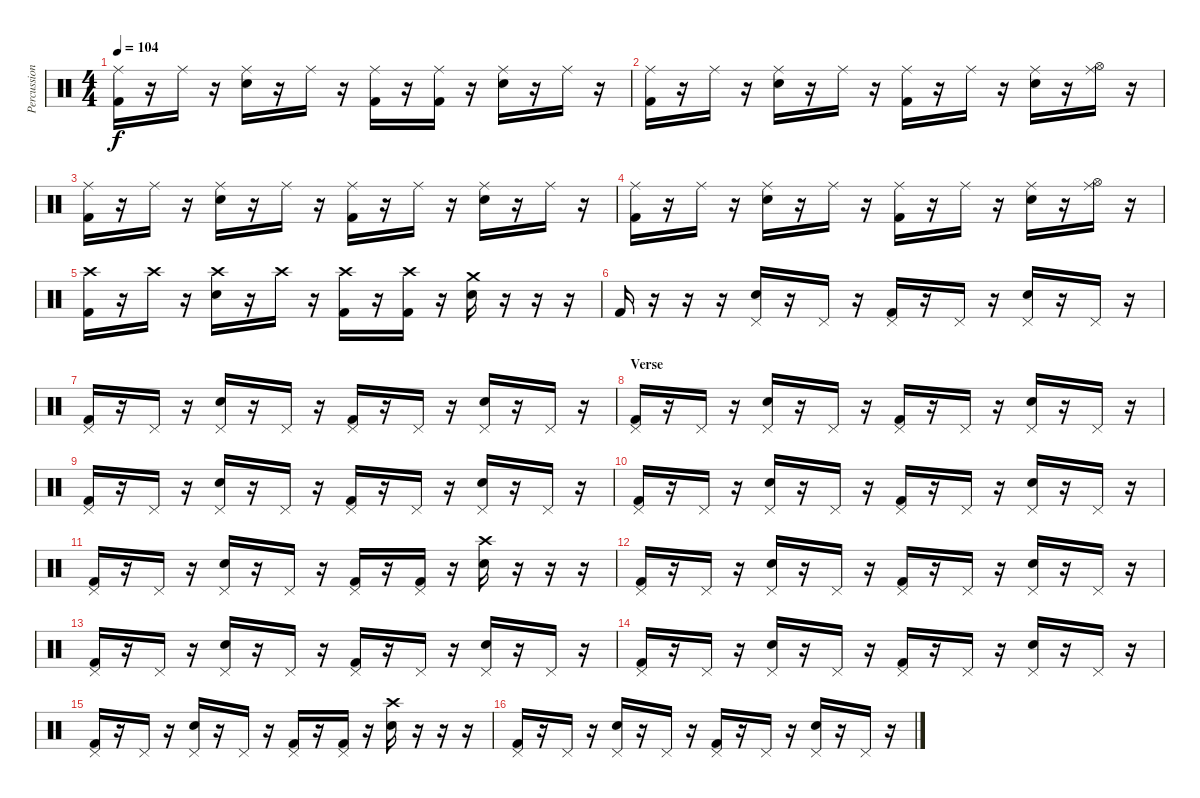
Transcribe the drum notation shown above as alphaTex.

\track ("Percussion" "Percussion") {instrument percussion}
\staff {score}
\articulation defaults
\ts (4 4)
\tempo 104
\clef neutral
\ks c
("Ride (middle)" "Kick (hit) 2").16{dy f} r.16 "Ride (middle)".16 r.16 ("Ride (middle)" "Electric Snare (hit)").16 r.16 "Ride (middle)".16 r.16 ("Ride (middle)" "Kick (hit) 2").16 r.16 ("Ride (middle)" "Kick (hit) 2").16 r.16 ("Ride (middle)" "Electric Snare (hit)").16 r.16 "Ride (middle)".16 r.16 |
("Ride (middle)" "Kick (hit) 2").16 r.16 "Ride (middle)".16 r.16 ("Ride (middle)" "Electric Snare (hit)").16 r.16 "Ride (middle)".16 r.16 ("Ride (middle)" "Kick (hit) 2").16 r.16 "Ride (middle)".16 r.16 ("Ride (middle)" "Electric Snare (hit)").16 r.16 ("Ride (middle)" "Hi-Hat (open)").16 r.16 |
("Ride (middle)" "Kick (hit) 2").16 r.16 "Ride (middle)".16 r.16 ("Ride (middle)" "Electric Snare (hit)").16 r.16 "Ride (middle)".16 r.16 ("Ride (middle)" "Kick (hit) 2").16 r.16 "Ride (middle)".16 r.16 ("Ride (middle)" "Electric Snare (hit)").16 r.16 "Ride (middle)".16 r.16 |
("Ride (middle)" "Kick (hit) 2").16 r.16 "Ride (middle)".16 r.16 ("Ride (middle)" "Electric Snare (hit)").16 r.16 "Ride (middle)".16 r.16 ("Ride (middle)" "Kick (hit) 2").16 r.16 "Ride (middle)".16 r.16 ("Ride (middle)" "Electric Snare (hit)").16 r.16 ("Ride (middle)" "Hi-Hat (open)").16 r.16 |
("Crash high (hit)" "Kick (hit) 2").16 r.16 "Crash high (hit)".16 r.16 ("Crash high (hit)" "Electric Snare (hit)").16 r.16 "Crash high (hit)".16 r.16 ("Crash high (hit)" "Kick (hit) 2").16 r.16 ("Crash high (hit)" "Kick (hit) 2").16 r.16 ("Crash medium (hit)" "Electric Snare (hit)").16 r.16 r.16 r.16 |
"Kick (hit) 2".16 r.16 r.16 r.16 ("Pedal Hi-Hat (hit)" "Snare (hit) 2").16 r.16 "Pedal Hi-Hat (hit)".16 r.16 ("Pedal Hi-Hat (hit)" "Kick (hit) 2").16 r.16 "Pedal Hi-Hat (hit)".16 r.16 ("Pedal Hi-Hat (hit)" "Snare (hit) 2").16 r.16 "Pedal Hi-Hat (hit)".16 r.16 |
("Pedal Hi-Hat (hit)" "Kick (hit) 2").16 r.16 "Pedal Hi-Hat (hit)".16 r.16 ("Pedal Hi-Hat (hit)" "Snare (hit) 2").16 r.16 "Pedal Hi-Hat (hit)".16 r.16 ("Pedal Hi-Hat (hit)" "Kick (hit) 2").16 r.16 "Pedal Hi-Hat (hit)".16 r.16 ("Pedal Hi-Hat (hit)" "Snare (hit) 2").16 r.16 "Pedal Hi-Hat (hit)".16 r.16 |
\section ("" "Verse")
("Pedal Hi-Hat (hit)" "Kick (hit) 2").16 r.16 "Pedal Hi-Hat (hit)".16 r.16 ("Pedal Hi-Hat (hit)" "Snare (hit) 2").16 r.16 "Pedal Hi-Hat (hit)".16 r.16 ("Pedal Hi-Hat (hit)" "Kick (hit) 2").16 r.16 "Pedal Hi-Hat (hit)".16 r.16 ("Pedal Hi-Hat (hit)" "Snare (hit) 2").16 r.16 "Pedal Hi-Hat (hit)".16 r.16 |
("Pedal Hi-Hat (hit)" "Kick (hit) 2").16 r.16 "Pedal Hi-Hat (hit)".16 r.16 ("Pedal Hi-Hat (hit)" "Snare (hit) 2").16 r.16 "Pedal Hi-Hat (hit)".16 r.16 ("Pedal Hi-Hat (hit)" "Kick (hit) 2").16 r.16 "Pedal Hi-Hat (hit)".16 r.16 ("Pedal Hi-Hat (hit)" "Snare (hit) 2").16 r.16 "Pedal Hi-Hat (hit)".16 r.16 |
("Pedal Hi-Hat (hit)" "Kick (hit) 2").16 r.16 "Pedal Hi-Hat (hit)".16 r.16 ("Pedal Hi-Hat (hit)" "Snare (hit) 2").16 r.16 "Pedal Hi-Hat (hit)".16 r.16 ("Pedal Hi-Hat (hit)" "Kick (hit) 2").16 r.16 "Pedal Hi-Hat (hit)".16 r.16 ("Pedal Hi-Hat (hit)" "Snare (hit) 2").16 r.16 "Pedal Hi-Hat (hit)".16 r.16 |
("Pedal Hi-Hat (hit)" "Kick (hit) 2").16 r.16 "Pedal Hi-Hat (hit)".16 r.16 ("Pedal Hi-Hat (hit)" "Snare (hit) 2").16 r.16 "Pedal Hi-Hat (hit)".16 r.16 ("Pedal Hi-Hat (hit)" "Kick (hit) 2").16 r.16 ("Pedal Hi-Hat (hit)" "Kick (hit) 2").16 r.16 ("Crash high (hit)" "Snare (hit) 2").16 r.16 r.16 r.16 |
("Pedal Hi-Hat (hit)" "Kick (hit) 2").16 r.16 "Pedal Hi-Hat (hit)".16 r.16 ("Pedal Hi-Hat (hit)" "Snare (hit) 2").16 r.16 "Pedal Hi-Hat (hit)".16 r.16 ("Pedal Hi-Hat (hit)" "Kick (hit) 2").16 r.16 "Pedal Hi-Hat (hit)".16 r.16 ("Pedal Hi-Hat (hit)" "Snare (hit) 2").16 r.16 "Pedal Hi-Hat (hit)".16 r.16 |
("Pedal Hi-Hat (hit)" "Kick (hit) 2").16 r.16 "Pedal Hi-Hat (hit)".16 r.16 ("Pedal Hi-Hat (hit)" "Snare (hit) 2").16 r.16 "Pedal Hi-Hat (hit)".16 r.16 ("Pedal Hi-Hat (hit)" "Kick (hit) 2").16 r.16 "Pedal Hi-Hat (hit)".16 r.16 ("Pedal Hi-Hat (hit)" "Snare (hit) 2").16 r.16 "Pedal Hi-Hat (hit)".16 r.16 |
("Pedal Hi-Hat (hit)" "Kick (hit) 2").16 r.16 "Pedal Hi-Hat (hit)".16 r.16 ("Pedal Hi-Hat (hit)" "Snare (hit) 2").16 r.16 "Pedal Hi-Hat (hit)".16 r.16 ("Pedal Hi-Hat (hit)" "Kick (hit) 2").16 r.16 "Pedal Hi-Hat (hit)".16 r.16 ("Pedal Hi-Hat (hit)" "Snare (hit) 2").16 r.16 "Pedal Hi-Hat (hit)".16 r.16 |
("Pedal Hi-Hat (hit)" "Kick (hit) 2").16 r.16 "Pedal Hi-Hat (hit)".16 r.16 ("Pedal Hi-Hat (hit)" "Snare (hit) 2").16 r.16 "Pedal Hi-Hat (hit)".16 r.16 ("Pedal Hi-Hat (hit)" "Kick (hit) 2").16 r.16 ("Pedal Hi-Hat (hit)" "Kick (hit) 2").16 r.16 ("Crash high (hit)" "Snare (hit) 2").16 r.16 r.16 r.16 |
("Pedal Hi-Hat (hit)" "Kick (hit) 2").16 r.16 "Pedal Hi-Hat (hit)".16 r.16 ("Pedal Hi-Hat (hit)" "Snare (hit) 2").16 r.16 "Pedal Hi-Hat (hit)".16 r.16 ("Pedal Hi-Hat (hit)" "Kick (hit) 2").16 r.16 "Pedal Hi-Hat (hit)".16 r.16 ("Pedal Hi-Hat (hit)" "Snare (hit) 2").16 r.16 "Pedal Hi-Hat (hit)".16 r.16
